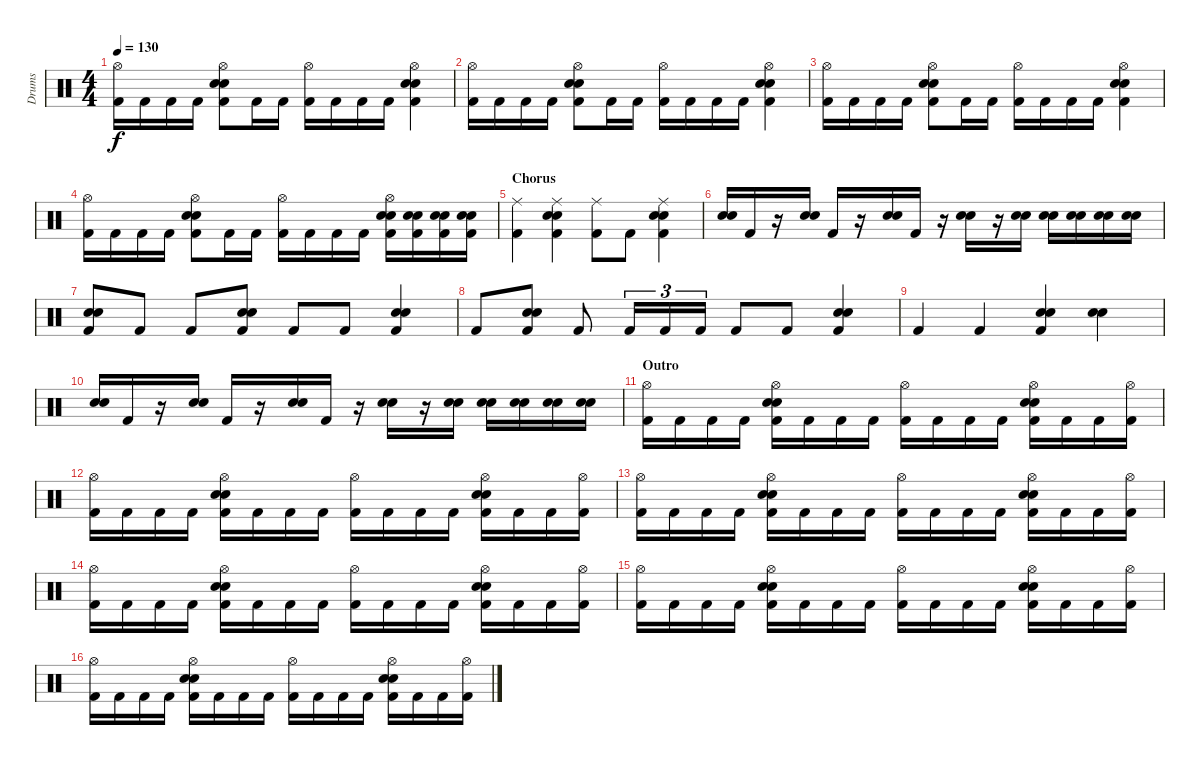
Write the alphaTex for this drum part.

\track ("Drums" "Drums") {instrument percussion}
\staff {score}
\articulation defaults
\ts (4 4)
\tempo 130
\clef neutral
\ks c
("Hi-Hat (open)" "Kick (hit) 2").16{dy f} "Kick (hit) 2".16 "Kick (hit) 2".16 "Kick (hit) 2".16 ("Hi-Hat (open)" "Snare (hit) 2" "Electric Snare (hit)" "Kick (hit) 2").8 "Kick (hit) 2".16 "Kick (hit) 2".16 ("Hi-Hat (open)" "Kick (hit) 2").16 "Kick (hit) 2".16 "Kick (hit) 2".16 "Kick (hit) 2".16 ("Hi-Hat (open)" "Snare (hit) 2" "Electric Snare (hit)" "Kick (hit) 2").4 |
("Hi-Hat (open)" "Kick (hit) 2").16 "Kick (hit) 2".16 "Kick (hit) 2".16 "Kick (hit) 2".16 ("Hi-Hat (open)" "Snare (hit) 2" "Electric Snare (hit)" "Kick (hit) 2").8 "Kick (hit) 2".16 "Kick (hit) 2".16 ("Hi-Hat (open)" "Kick (hit) 2").16 "Kick (hit) 2".16 "Kick (hit) 2".16 "Kick (hit) 2".16 ("Hi-Hat (open)" "Snare (hit) 2" "Electric Snare (hit)" "Kick (hit) 2").4 |
("Hi-Hat (open)" "Kick (hit) 2").16 "Kick (hit) 2".16 "Kick (hit) 2".16 "Kick (hit) 2".16 ("Hi-Hat (open)" "Snare (hit) 2" "Electric Snare (hit)" "Kick (hit) 2").8 "Kick (hit) 2".16 "Kick (hit) 2".16 ("Hi-Hat (open)" "Kick (hit) 2").16 "Kick (hit) 2".16 "Kick (hit) 2".16 "Kick (hit) 2".16 ("Hi-Hat (open)" "Snare (hit) 2" "Electric Snare (hit)" "Kick (hit) 2").4 |
("Hi-Hat (open)" "Kick (hit) 2").16 "Kick (hit) 2".16 "Kick (hit) 2".16 "Kick (hit) 2".16 ("Hi-Hat (open)" "Snare (hit) 2" "Electric Snare (hit)" "Kick (hit) 2").8 "Kick (hit) 2".16 "Kick (hit) 2".16 ("Hi-Hat (open)" "Kick (hit) 2").16 "Kick (hit) 2".16 "Kick (hit) 2".16 "Kick (hit) 2".16 ("Hi-Hat (open)" "Snare (hit) 2" "Electric Snare (hit)" "Kick (hit) 2").16 ("Snare (hit) 2" "Electric Snare (hit)" "Kick (hit) 2").16 ("Snare (hit) 2" "Electric Snare (hit)" "Kick (hit) 2").16 ("Snare (hit) 2" "Electric Snare (hit)" "Kick (hit) 2").16 |
\section ("" "Chorus")
("Ride (middle)" "Kick (hit) 2").4 ("Ride (middle)" "Snare (hit) 2" "Electric Snare (hit)" "Kick (hit) 2").4 ("Ride (middle)" "Kick (hit) 2").8 "Kick (hit) 2".8 ("Ride (middle)" "Snare (hit) 2" "Electric Snare (hit)" "Kick (hit) 2").4 |
("Snare (hit) 2" "Electric Snare (hit)").16 "Kick (hit) 2".16 r.16 ("Snare (hit) 2" "Electric Snare (hit)").16 "Kick (hit) 2".16 r.16 ("Snare (hit) 2" "Electric Snare (hit)").16 "Kick (hit) 2".16 r.16 ("Snare (hit) 2" "Electric Snare (hit)").16 r.16 ("Snare (hit) 2" "Electric Snare (hit)").16 ("Snare (hit) 2" "Electric Snare (hit)").16 ("Snare (hit) 2" "Electric Snare (hit)").16 ("Snare (hit) 2" "Electric Snare (hit)").16 ("Snare (hit) 2" "Electric Snare (hit)").16 |
("Snare (hit) 2" "Electric Snare (hit)" "Kick (hit) 2").8 "Kick (hit) 2".8 "Kick (hit) 2".8 ("Snare (hit) 2" "Electric Snare (hit)" "Kick (hit) 2").8 "Kick (hit) 2".8 "Kick (hit) 2".8 ("Snare (hit) 2" "Electric Snare (hit)" "Kick (hit) 2").4 |
"Kick (hit) 2".8 ("Snare (hit) 2" "Electric Snare (hit)" "Kick (hit) 2").8 "Kick (hit) 2".8 "Kick (hit) 2".16{tu (3 2)} "Kick (hit) 2".16{tu (3 2)} "Kick (hit) 2".16{tu (3 2)} "Kick (hit) 2".8 "Kick (hit) 2".8 ("Snare (hit) 2" "Electric Snare (hit)" "Kick (hit) 2").4 |
"Kick (hit) 2".4 "Kick (hit) 2".4 ("Snare (hit) 2" "Electric Snare (hit)" "Kick (hit) 2").4 ("Snare (hit) 2" "Electric Snare (hit)").4 |
("Snare (hit) 2" "Electric Snare (hit)").16 "Kick (hit) 2".16 r.16 ("Snare (hit) 2" "Electric Snare (hit)").16 "Kick (hit) 2".16 r.16 ("Snare (hit) 2" "Electric Snare (hit)").16 "Kick (hit) 2".16 r.16 ("Snare (hit) 2" "Electric Snare (hit)").16 r.16 ("Snare (hit) 2" "Electric Snare (hit)").16 ("Snare (hit) 2" "Electric Snare (hit)").16 ("Snare (hit) 2" "Electric Snare (hit)").16 ("Snare (hit) 2" "Electric Snare (hit)").16 ("Snare (hit) 2" "Electric Snare (hit)").16 |
\section ("" "Outro")
("Hi-Hat (open)" "Kick (hit) 2").16 "Kick (hit) 2".16 "Kick (hit) 2".16 "Kick (hit) 2".16 ("Hi-Hat (open)" "Snare (hit) 2" "Electric Snare (hit)" "Kick (hit) 2").16 "Kick (hit) 2".16 "Kick (hit) 2".16 "Kick (hit) 2".16 ("Hi-Hat (open)" "Kick (hit) 2").16 "Kick (hit) 2".16 "Kick (hit) 2".16 "Kick (hit) 2".16 ("Hi-Hat (open)" "Snare (hit) 2" "Electric Snare (hit)" "Kick (hit) 2").16 "Kick (hit) 2".16 "Kick (hit) 2".16 ("Hi-Hat (open)" "Kick (hit) 2").16 |
("Hi-Hat (open)" "Kick (hit) 2").16 "Kick (hit) 2".16 "Kick (hit) 2".16 "Kick (hit) 2".16 ("Hi-Hat (open)" "Snare (hit) 2" "Electric Snare (hit)" "Kick (hit) 2").16 "Kick (hit) 2".16 "Kick (hit) 2".16 "Kick (hit) 2".16 ("Hi-Hat (open)" "Kick (hit) 2").16 "Kick (hit) 2".16 "Kick (hit) 2".16 "Kick (hit) 2".16 ("Hi-Hat (open)" "Snare (hit) 2" "Electric Snare (hit)" "Kick (hit) 2").16 "Kick (hit) 2".16 "Kick (hit) 2".16 ("Hi-Hat (open)" "Kick (hit) 2").16 |
("Hi-Hat (open)" "Kick (hit) 2").16 "Kick (hit) 2".16 "Kick (hit) 2".16 "Kick (hit) 2".16 ("Hi-Hat (open)" "Snare (hit) 2" "Electric Snare (hit)" "Kick (hit) 2").16 "Kick (hit) 2".16 "Kick (hit) 2".16 "Kick (hit) 2".16 ("Hi-Hat (open)" "Kick (hit) 2").16 "Kick (hit) 2".16 "Kick (hit) 2".16 "Kick (hit) 2".16 ("Hi-Hat (open)" "Snare (hit) 2" "Electric Snare (hit)" "Kick (hit) 2").16 "Kick (hit) 2".16 "Kick (hit) 2".16 ("Hi-Hat (open)" "Kick (hit) 2").16 |
("Hi-Hat (open)" "Kick (hit) 2").16 "Kick (hit) 2".16 "Kick (hit) 2".16 "Kick (hit) 2".16 ("Hi-Hat (open)" "Snare (hit) 2" "Electric Snare (hit)" "Kick (hit) 2").16 "Kick (hit) 2".16 "Kick (hit) 2".16 "Kick (hit) 2".16 ("Hi-Hat (open)" "Kick (hit) 2").16 "Kick (hit) 2".16 "Kick (hit) 2".16 "Kick (hit) 2".16 ("Hi-Hat (open)" "Snare (hit) 2" "Electric Snare (hit)" "Kick (hit) 2").16 "Kick (hit) 2".16 "Kick (hit) 2".16 ("Hi-Hat (open)" "Kick (hit) 2").16 |
("Hi-Hat (open)" "Kick (hit) 2").16 "Kick (hit) 2".16 "Kick (hit) 2".16 "Kick (hit) 2".16 ("Hi-Hat (open)" "Snare (hit) 2" "Electric Snare (hit)" "Kick (hit) 2").16 "Kick (hit) 2".16 "Kick (hit) 2".16 "Kick (hit) 2".16 ("Hi-Hat (open)" "Kick (hit) 2").16 "Kick (hit) 2".16 "Kick (hit) 2".16 "Kick (hit) 2".16 ("Hi-Hat (open)" "Snare (hit) 2" "Electric Snare (hit)" "Kick (hit) 2").16 "Kick (hit) 2".16 "Kick (hit) 2".16 ("Hi-Hat (open)" "Kick (hit) 2").16 |
("Hi-Hat (open)" "Kick (hit) 2").16 "Kick (hit) 2".16 "Kick (hit) 2".16 "Kick (hit) 2".16 ("Hi-Hat (open)" "Snare (hit) 2" "Electric Snare (hit)" "Kick (hit) 2").16 "Kick (hit) 2".16 "Kick (hit) 2".16 "Kick (hit) 2".16 ("Hi-Hat (open)" "Kick (hit) 2").16 "Kick (hit) 2".16 "Kick (hit) 2".16 "Kick (hit) 2".16 ("Hi-Hat (open)" "Snare (hit) 2" "Electric Snare (hit)" "Kick (hit) 2").16 "Kick (hit) 2".16 "Kick (hit) 2".16 ("Hi-Hat (open)" "Kick (hit) 2").16
